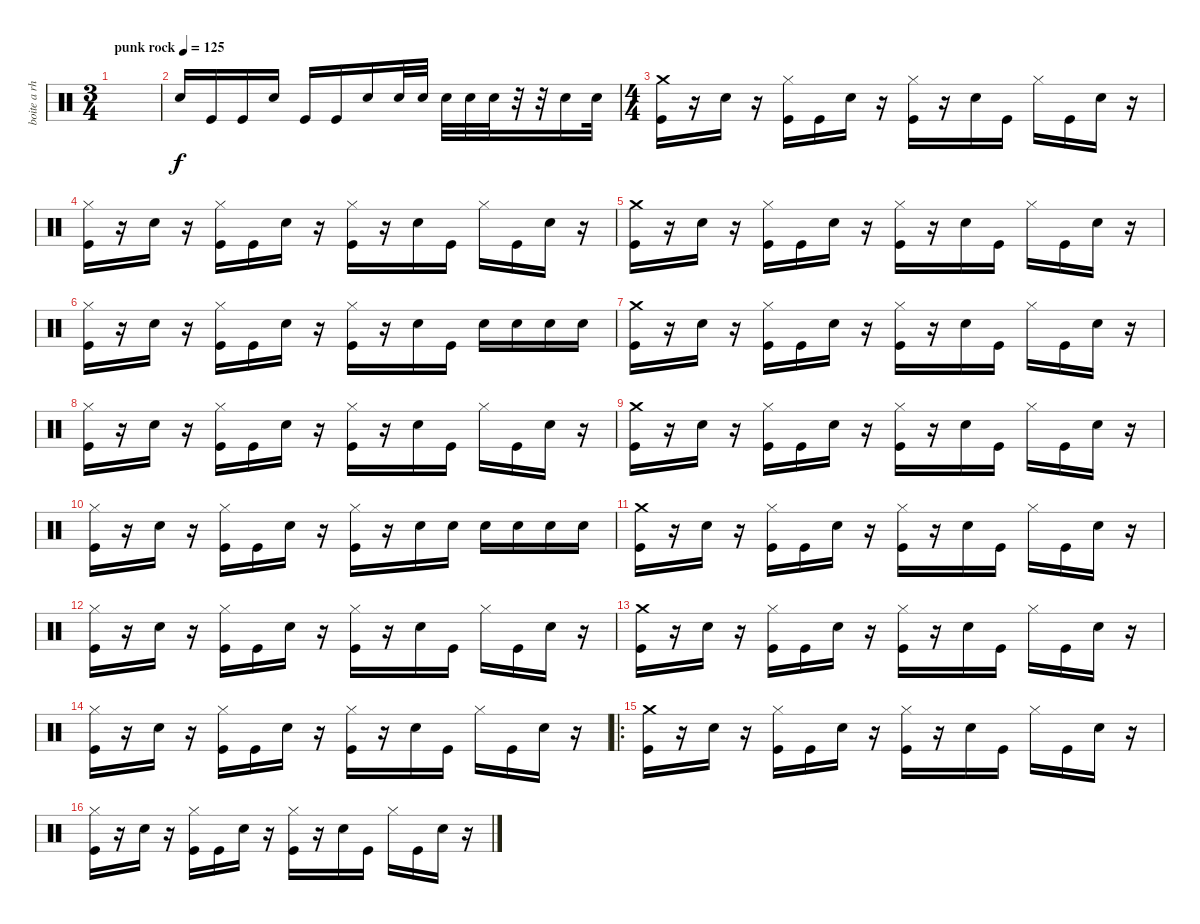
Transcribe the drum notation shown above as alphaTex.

\track ("boite a rhytme ( jean-Francois )" "boite a rh") {instrument percussion}
\staff {score}
\articulation defaults
\ts (3 4)
\tempo (125 "punk rock")
\clef neutral
\ks c
|
"Snare (hit) 2".16 "Kick (hit)".16 "Kick (hit)".16 "Snare (hit) 2".16 "Kick (hit)".16 "Kick (hit)".16 "Snare (hit) 2".16 "Snare (hit) 2".32 "Snare (hit) 2".32 "Snare (hit) 2".32 "Snare (hit) 2".32 "Snare (hit) 2".32 r.32 r.32 "Snare (hit) 2".16 "Snare (hit) 2".32 |
\ts (4 4)
("Crash medium (hit)" "Kick (hit)").16 r.16 "Snare (hit) 2".16 r.16 ("Hi-Hat (closed)" "Kick (hit)").16 "Kick (hit)".16 "Snare (hit) 2".16 r.16 ("Hi-Hat (closed)" "Kick (hit)").16 r.16 "Snare (hit) 2".16 "Kick (hit)".16 "Hi-Hat (closed)".16 "Kick (hit)".16 "Snare (hit) 2".16 r.16 |
("Hi-Hat (closed)" "Kick (hit)").16 r.16 "Snare (hit) 2".16 r.16 ("Hi-Hat (closed)" "Kick (hit)").16 "Kick (hit)".16 "Snare (hit) 2".16 r.16 ("Hi-Hat (closed)" "Kick (hit)").16 r.16 "Snare (hit) 2".16 "Kick (hit)".16 "Hi-Hat (closed)".16 "Kick (hit)".16 "Snare (hit) 2".16 r.16 |
("Crash medium (hit)" "Kick (hit)").16 r.16 "Snare (hit) 2".16 r.16 ("Hi-Hat (closed)" "Kick (hit)").16 "Kick (hit)".16 "Snare (hit) 2".16 r.16 ("Hi-Hat (closed)" "Kick (hit)").16 r.16 "Snare (hit) 2".16 "Kick (hit)".16 "Hi-Hat (closed)".16 "Kick (hit)".16 "Snare (hit) 2".16 r.16 |
("Hi-Hat (closed)" "Kick (hit)").16 r.16 "Snare (hit) 2".16 r.16 ("Hi-Hat (closed)" "Kick (hit)").16 "Kick (hit)".16 "Snare (hit) 2".16 r.16 ("Hi-Hat (closed)" "Kick (hit)").16 r.16 "Snare (hit) 2".16 "Kick (hit)".16 "Snare (hit) 2".16 "Snare (hit) 2".16 "Snare (hit) 2".16 "Snare (hit) 2".16 |
("Crash medium (hit)" "Kick (hit)").16 r.16 "Snare (hit) 2".16 r.16 ("Hi-Hat (closed)" "Kick (hit)").16 "Kick (hit)".16 "Snare (hit) 2".16 r.16 ("Hi-Hat (closed)" "Kick (hit)").16 r.16 "Snare (hit) 2".16 "Kick (hit)".16 "Hi-Hat (closed)".16 "Kick (hit)".16 "Snare (hit) 2".16 r.16 |
("Hi-Hat (closed)" "Kick (hit)").16 r.16 "Snare (hit) 2".16 r.16 ("Hi-Hat (closed)" "Kick (hit)").16 "Kick (hit)".16 "Snare (hit) 2".16 r.16 ("Hi-Hat (closed)" "Kick (hit)").16 r.16 "Snare (hit) 2".16 "Kick (hit)".16 "Hi-Hat (closed)".16 "Kick (hit)".16 "Snare (hit) 2".16 r.16 |
("Crash medium (hit)" "Kick (hit)").16 r.16 "Snare (hit) 2".16 r.16 ("Hi-Hat (closed)" "Kick (hit)").16 "Kick (hit)".16 "Snare (hit) 2".16 r.16 ("Hi-Hat (closed)" "Kick (hit)").16 r.16 "Snare (hit) 2".16 "Kick (hit)".16 "Hi-Hat (closed)".16 "Kick (hit)".16 "Snare (hit) 2".16 r.16 |
("Hi-Hat (closed)" "Kick (hit)").16 r.16 "Snare (hit) 2".16 r.16 ("Hi-Hat (closed)" "Kick (hit)").16 "Kick (hit)".16 "Snare (hit) 2".16 r.16 ("Hi-Hat (closed)" "Kick (hit)").16 r.16 "Snare (hit) 2".16 "Snare (hit) 2".16 "Snare (hit) 2".16 "Snare (hit) 2".16 "Snare (hit) 2".16 "Snare (hit) 2".16 |
("Crash medium (hit)" "Kick (hit)").16 r.16 "Snare (hit) 2".16 r.16 ("Hi-Hat (closed)" "Kick (hit)").16 "Kick (hit)".16 "Snare (hit) 2".16 r.16 ("Hi-Hat (closed)" "Kick (hit)").16 r.16 "Snare (hit) 2".16 "Kick (hit)".16 "Hi-Hat (closed)".16 "Kick (hit)".16 "Snare (hit) 2".16 r.16 |
("Hi-Hat (closed)" "Kick (hit)").16 r.16 "Snare (hit) 2".16 r.16 ("Hi-Hat (closed)" "Kick (hit)").16 "Kick (hit)".16 "Snare (hit) 2".16 r.16 ("Hi-Hat (closed)" "Kick (hit)").16 r.16 "Snare (hit) 2".16 "Kick (hit)".16 "Hi-Hat (closed)".16 "Kick (hit)".16 "Snare (hit) 2".16 r.16 |
("Crash medium (hit)" "Kick (hit)").16 r.16 "Snare (hit) 2".16 r.16 ("Hi-Hat (closed)" "Kick (hit)").16 "Kick (hit)".16 "Snare (hit) 2".16 r.16 ("Hi-Hat (closed)" "Kick (hit)").16 r.16 "Snare (hit) 2".16 "Kick (hit)".16 "Hi-Hat (closed)".16 "Kick (hit)".16 "Snare (hit) 2".16 r.16 |
("Hi-Hat (closed)" "Kick (hit)").16 r.16 "Snare (hit) 2".16 r.16 ("Hi-Hat (closed)" "Kick (hit)").16 "Kick (hit)".16 "Snare (hit) 2".16 r.16 ("Hi-Hat (closed)" "Kick (hit)").16 r.16 "Snare (hit) 2".16 "Kick (hit)".16 "Hi-Hat (closed)".16 "Kick (hit)".16 "Snare (hit) 2".16 r.16 |
\ro
("Crash medium (hit)" "Kick (hit)").16 r.16 "Snare (hit) 2".16 r.16 ("Hi-Hat (closed)" "Kick (hit)").16 "Kick (hit)".16 "Snare (hit) 2".16 r.16 ("Hi-Hat (closed)" "Kick (hit)").16 r.16 "Snare (hit) 2".16 "Kick (hit)".16 "Hi-Hat (closed)".16 "Kick (hit)".16 "Snare (hit) 2".16 r.16 |
("Hi-Hat (closed)" "Kick (hit)").16 r.16 "Snare (hit) 2".16 r.16 ("Hi-Hat (closed)" "Kick (hit)").16 "Kick (hit)".16 "Snare (hit) 2".16 r.16 ("Hi-Hat (closed)" "Kick (hit)").16 r.16 "Snare (hit) 2".16 "Kick (hit)".16 "Hi-Hat (closed)".16 "Kick (hit)".16 "Snare (hit) 2".16 r.16
